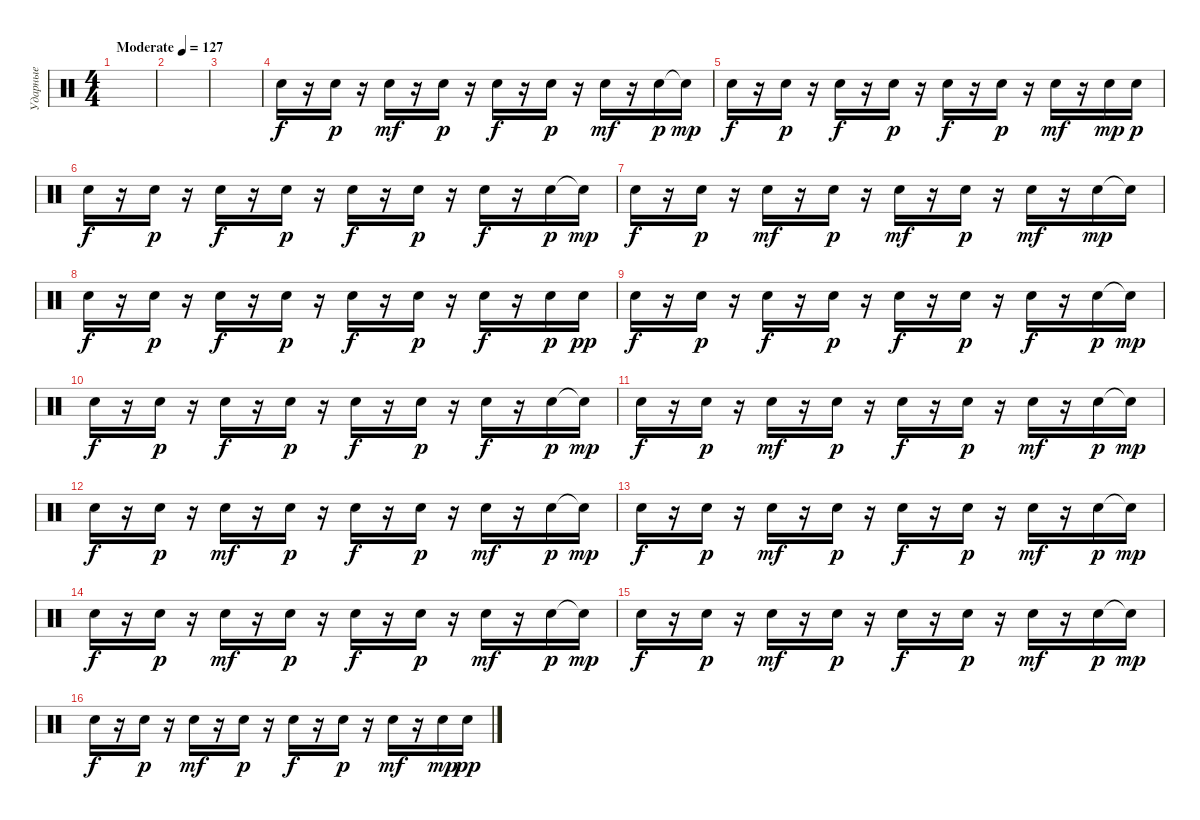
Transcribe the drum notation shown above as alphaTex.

\track ("Ударные" "Ударные") {instrument percussion}
\staff {score}
\articulation defaults
\ts (4 4)
\tempo (127 "Moderate")
\clef neutral
\ks c
|
|
|
"Electric Snare (hit)".16 r.16 "Electric Snare (hit)".16{dy p} r.16 "Electric Snare (hit)".16{dy mf} r.16 "Electric Snare (hit)".16{dy p} r.16 "Electric Snare (hit)".16{dy f} r.16 "Electric Snare (hit)".16{dy p} r.16 "Electric Snare (hit)".16{dy mf} r.16 "Electric Snare (hit)".16{dy p} "Electric Snare (hit)"{t}.16{dy mp} |
"Electric Snare (hit)".16{dy f} r.16 "Electric Snare (hit)".16{dy p} r.16 "Electric Snare (hit)".16{dy f} r.16 "Electric Snare (hit)".16{dy p} r.16 "Electric Snare (hit)".16{dy f} r.16 "Electric Snare (hit)".16{dy p} r.16 "Electric Snare (hit)".16{dy mf} r.16 "Electric Snare (hit)".16{dy mp} "Electric Snare (hit)".16{dy p} |
"Electric Snare (hit)".16{dy f} r.16 "Electric Snare (hit)".16{dy p} r.16 "Electric Snare (hit)".16{dy f} r.16 "Electric Snare (hit)".16{dy p} r.16 "Electric Snare (hit)".16{dy f} r.16 "Electric Snare (hit)".16{dy p} r.16 "Electric Snare (hit)".16{dy f} r.16 "Electric Snare (hit)".16{dy p} "Electric Snare (hit)"{t}.16{dy mp} |
"Electric Snare (hit)".16{dy f} r.16 "Electric Snare (hit)".16{dy p} r.16 "Electric Snare (hit)".16{dy mf} r.16 "Electric Snare (hit)".16{dy p} r.16 "Electric Snare (hit)".16{dy mf} r.16 "Electric Snare (hit)".16{dy p} r.16 "Electric Snare (hit)".16{dy mf} r.16 "Electric Snare (hit)".16{dy mp} "Electric Snare (hit)"{t}.16 |
"Electric Snare (hit)".16{dy f} r.16 "Electric Snare (hit)".16{dy p} r.16 "Electric Snare (hit)".16{dy f} r.16 "Electric Snare (hit)".16{dy p} r.16 "Electric Snare (hit)".16{dy f} r.16 "Electric Snare (hit)".16{dy p} r.16 "Electric Snare (hit)".16{dy f} r.16 "Electric Snare (hit)".16{dy p} "Electric Snare (hit)".16{dy pp} |
"Electric Snare (hit)".16{dy f} r.16 "Electric Snare (hit)".16{dy p} r.16 "Electric Snare (hit)".16{dy f} r.16 "Electric Snare (hit)".16{dy p} r.16 "Electric Snare (hit)".16{dy f} r.16 "Electric Snare (hit)".16{dy p} r.16 "Electric Snare (hit)".16{dy f} r.16 "Electric Snare (hit)".16{dy p} "Electric Snare (hit)"{t}.16{dy mp} |
"Electric Snare (hit)".16{dy f} r.16 "Electric Snare (hit)".16{dy p} r.16 "Electric Snare (hit)".16{dy f} r.16 "Electric Snare (hit)".16{dy p} r.16 "Electric Snare (hit)".16{dy f} r.16 "Electric Snare (hit)".16{dy p} r.16 "Electric Snare (hit)".16{dy f} r.16 "Electric Snare (hit)".16{dy p} "Electric Snare (hit)"{t}.16{dy mp} |
"Electric Snare (hit)".16{dy f} r.16 "Electric Snare (hit)".16{dy p} r.16 "Electric Snare (hit)".16{dy mf} r.16 "Electric Snare (hit)".16{dy p} r.16 "Electric Snare (hit)".16{dy f} r.16 "Electric Snare (hit)".16{dy p} r.16 "Electric Snare (hit)".16{dy mf} r.16 "Electric Snare (hit)".16{dy p} "Electric Snare (hit)"{t}.16{dy mp} |
"Electric Snare (hit)".16{dy f} r.16 "Electric Snare (hit)".16{dy p} r.16 "Electric Snare (hit)".16{dy mf} r.16 "Electric Snare (hit)".16{dy p} r.16 "Electric Snare (hit)".16{dy f} r.16 "Electric Snare (hit)".16{dy p} r.16 "Electric Snare (hit)".16{dy mf} r.16 "Electric Snare (hit)".16{dy p} "Electric Snare (hit)"{t}.16{dy mp} |
"Electric Snare (hit)".16{dy f} r.16 "Electric Snare (hit)".16{dy p} r.16 "Electric Snare (hit)".16{dy mf} r.16 "Electric Snare (hit)".16{dy p} r.16 "Electric Snare (hit)".16{dy f} r.16 "Electric Snare (hit)".16{dy p} r.16 "Electric Snare (hit)".16{dy mf} r.16 "Electric Snare (hit)".16{dy p} "Electric Snare (hit)"{t}.16{dy mp} |
"Electric Snare (hit)".16{dy f} r.16 "Electric Snare (hit)".16{dy p} r.16 "Electric Snare (hit)".16{dy mf} r.16 "Electric Snare (hit)".16{dy p} r.16 "Electric Snare (hit)".16{dy f} r.16 "Electric Snare (hit)".16{dy p} r.16 "Electric Snare (hit)".16{dy mf} r.16 "Electric Snare (hit)".16{dy p} "Electric Snare (hit)"{t}.16{dy mp} |
"Electric Snare (hit)".16{dy f} r.16 "Electric Snare (hit)".16{dy p} r.16 "Electric Snare (hit)".16{dy mf} r.16 "Electric Snare (hit)".16{dy p} r.16 "Electric Snare (hit)".16{dy f} r.16 "Electric Snare (hit)".16{dy p} r.16 "Electric Snare (hit)".16{dy mf} r.16 "Electric Snare (hit)".16{dy p} "Electric Snare (hit)"{t}.16{dy mp} |
"Electric Snare (hit)".16{dy f} r.16 "Electric Snare (hit)".16{dy p} r.16 "Electric Snare (hit)".16{dy mf} r.16 "Electric Snare (hit)".16{dy p} r.16 "Electric Snare (hit)".16{dy f} r.16 "Electric Snare (hit)".16{dy p} r.16 "Electric Snare (hit)".16{dy mf} r.16 "Electric Snare (hit)".16{dy mp} "Electric Snare (hit)".16{dy pp}
